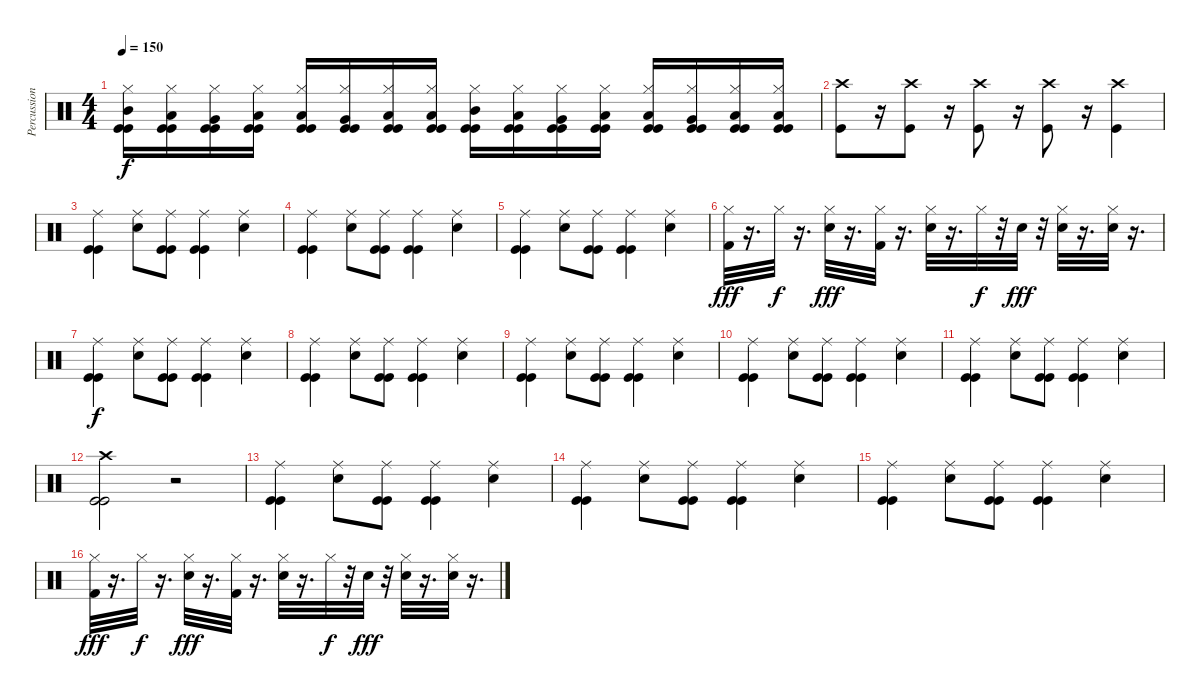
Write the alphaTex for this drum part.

\track ("Percussion" "Percussion") {instrument percussion}
\staff {score}
\articulation defaults
\ts (4 4)
\tempo 150
\clef neutral
\ks c
("Mid Tom (hit)" "Kick (hit)" "Kick (hit)" "Hi-Hat (closed)").16{dy f} ("Low Tom (hit)" "Kick (hit)" "Kick (hit)" "Hi-Hat (closed)").16 ("Very Low Tom (hit)" "Kick (hit)" "Kick (hit)" "Hi-Hat (closed)").16 ("Low Floor Tom (hit)" "Kick (hit)" "Kick (hit)" "Hi-Hat (closed)").16 ("Low Tom (hit)" "Kick (hit)" "Kick (hit)" "Hi-Hat (closed)").16 ("Very Low Tom (hit)" "Kick (hit)" "Kick (hit)" "Hi-Hat (closed)").16 ("Low Floor Tom (hit)" "Kick (hit)" "Kick (hit)" "Hi-Hat (closed)").16 ("Low Floor Tom (hit)" "Kick (hit)" "Kick (hit)" "Hi-Hat (closed)").16 ("Mid Tom (hit)" "Kick (hit)" "Kick (hit)" "Hi-Hat (closed)").16 ("Low Tom (hit)" "Kick (hit)" "Kick (hit)" "Hi-Hat (closed)").16 ("Very Low Tom (hit)" "Kick (hit)" "Kick (hit)" "Hi-Hat (closed)").16 ("Low Floor Tom (hit)" "Kick (hit)" "Kick (hit)" "Hi-Hat (closed)").16 ("Low Tom (hit)" "Kick (hit)" "Kick (hit)" "Hi-Hat (closed)").16 ("Very Low Tom (hit)" "Kick (hit)" "Kick (hit)" "Hi-Hat (closed)").16 ("Low Floor Tom (hit)" "Kick (hit)" "Kick (hit)" "Hi-Hat (closed)").16 ("Low Floor Tom (hit)" "Kick (hit)" "Kick (hit)" "Hi-Hat (closed)").16 |
("Crash high (hit)" "Kick (hit)").8 r.16 ("Crash high (hit)" "Kick (hit)").8 r.16 ("Crash high (hit)" "Kick (hit)").8 r.16 ("Crash high (hit)" "Kick (hit)").8 r.16 ("Crash high (hit)" "Kick (hit)").4 |
("Kick (hit)" "Kick (hit)" "Ride (middle)").4 ("Electric Snare (hit)" "Ride (middle)").8 ("Kick (hit)" "Kick (hit)" "Ride (middle)").8 ("Kick (hit)" "Kick (hit)" "Ride (middle)").4 ("Electric Snare (hit)" "Ride (middle)").4 |
("Kick (hit)" "Kick (hit)" "Ride (middle)").4 ("Electric Snare (hit)" "Ride (middle)").8 ("Kick (hit)" "Kick (hit)" "Ride (middle)").8 ("Kick (hit)" "Kick (hit)" "Ride (middle)").4 ("Electric Snare (hit)" "Ride (middle)").4 |
("Kick (hit)" "Kick (hit)" "Ride (middle)").4 ("Electric Snare (hit)" "Ride (middle)").8 ("Kick (hit)" "Kick (hit)" "Ride (middle)").8 ("Kick (hit)" "Kick (hit)" "Ride (middle)").4 ("Electric Snare (hit)" "Ride (middle)").4 |
("Kick (hit) 2" "Hi-Hat (closed)").32{dy fff} r.16{d} "Hi-Hat (closed)".32{dy f} r.16{d} ("Hi-Hat (closed)" "Electric Snare (hit)").32{dy fff} r.16{d} ("Kick (hit) 2" "Hi-Hat (closed)").32 r.16{d} ("Electric Snare (hit)" "Hi-Hat (closed)").32 r.16{d} "Hi-Hat (closed)".32{dy f} r.32 "Electric Snare (hit)".32{dy fff} r.32 ("Hi-Hat (closed)" "Electric Snare (hit)").32 r.16{d} ("Hi-Hat (closed)" "Electric Snare (hit)").32 r.16{d} |
("Kick (hit)" "Kick (hit)" "Ride (middle)").4{dy f} ("Electric Snare (hit)" "Ride (middle)").8 ("Kick (hit)" "Kick (hit)" "Ride (middle)").8 ("Kick (hit)" "Kick (hit)" "Ride (middle)").4 ("Electric Snare (hit)" "Ride (middle)").4 |
("Kick (hit)" "Kick (hit)" "Ride (middle)").4 ("Electric Snare (hit)" "Ride (middle)").8 ("Kick (hit)" "Kick (hit)" "Ride (middle)").8 ("Kick (hit)" "Kick (hit)" "Ride (middle)").4 ("Electric Snare (hit)" "Ride (middle)").4 |
("Kick (hit)" "Kick (hit)" "Ride (middle)").4 ("Electric Snare (hit)" "Ride (middle)").8 ("Kick (hit)" "Kick (hit)" "Ride (middle)").8 ("Kick (hit)" "Kick (hit)" "Ride (middle)").4 ("Electric Snare (hit)" "Ride (middle)").4 |
("Kick (hit)" "Kick (hit)" "Ride (middle)").4 ("Electric Snare (hit)" "Ride (middle)").8 ("Kick (hit)" "Kick (hit)" "Ride (middle)").8 ("Kick (hit)" "Kick (hit)" "Ride (middle)").4 ("Electric Snare (hit)" "Ride (middle)").4 |
("Kick (hit)" "Kick (hit)" "Ride (middle)").4 ("Electric Snare (hit)" "Ride (middle)").8 ("Kick (hit)" "Kick (hit)" "Ride (middle)").8 ("Kick (hit)" "Kick (hit)" "Ride (middle)").4 ("Electric Snare (hit)" "Ride (middle)").4 |
("Crash high (hit)" "Kick (hit)" "Kick (hit)").2 r.2 |
("Kick (hit)" "Kick (hit)" "Ride (middle)").4 ("Electric Snare (hit)" "Ride (middle)").8 ("Kick (hit)" "Kick (hit)" "Ride (middle)").8 ("Kick (hit)" "Kick (hit)" "Ride (middle)").4 ("Electric Snare (hit)" "Ride (middle)").4 |
("Kick (hit)" "Kick (hit)" "Ride (middle)").4 ("Electric Snare (hit)" "Ride (middle)").8 ("Kick (hit)" "Kick (hit)" "Ride (middle)").8 ("Kick (hit)" "Kick (hit)" "Ride (middle)").4 ("Electric Snare (hit)" "Ride (middle)").4 |
("Kick (hit)" "Kick (hit)" "Ride (middle)").4 ("Electric Snare (hit)" "Ride (middle)").8 ("Kick (hit)" "Kick (hit)" "Ride (middle)").8 ("Kick (hit)" "Kick (hit)" "Ride (middle)").4 ("Electric Snare (hit)" "Ride (middle)").4 |
("Kick (hit) 2" "Hi-Hat (closed)").32{dy fff} r.16{d} "Hi-Hat (closed)".32{dy f} r.16{d} ("Hi-Hat (closed)" "Electric Snare (hit)").32{dy fff} r.16{d} ("Kick (hit) 2" "Hi-Hat (closed)").32 r.16{d} ("Electric Snare (hit)" "Hi-Hat (closed)").32 r.16{d} "Hi-Hat (closed)".32{dy f} r.32 "Electric Snare (hit)".32{dy fff} r.32 ("Hi-Hat (closed)" "Electric Snare (hit)").32 r.16{d} ("Hi-Hat (closed)" "Electric Snare (hit)").32 r.16{d}
